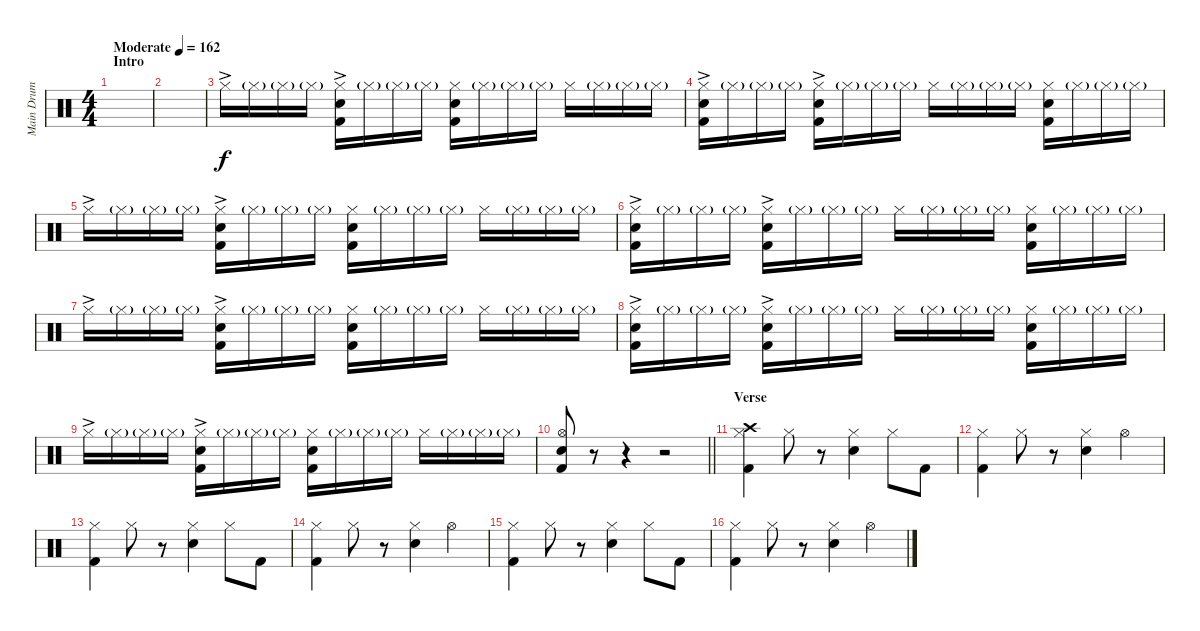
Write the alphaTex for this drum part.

\track ("Main Drum Track" "Main Drum ") {instrument percussion}
\staff {score}
\articulation defaults
\ts (4 4)
\section ("" "Intro")
\tempo (162 "Moderate")
\clef neutral
\ks c
|
|
"Hi-Hat (closed)"{ac}.16 "Hi-Hat (closed)"{g}.16 "Hi-Hat (closed)"{g}.16 "Hi-Hat (closed)"{g}.16 ("Hand Clap (hit)" "Hi-Hat (closed)"{ac} "Kick (hit) 2").16 "Hi-Hat (closed)"{g}.16 "Hi-Hat (closed)"{g}.16 "Hi-Hat (closed)"{g}.16 ("Hand Clap (hit)" "Hi-Hat (closed)" "Kick (hit) 2").16 "Hi-Hat (closed)"{g}.16 "Hi-Hat (closed)"{g}.16 "Hi-Hat (closed)"{g}.16 "Hi-Hat (closed)".16 "Hi-Hat (closed)"{g}.16 "Hi-Hat (closed)"{g}.16 "Hi-Hat (closed)"{g}.16 |
("Hand Clap (hit)" "Hi-Hat (closed)"{ac} "Kick (hit) 2").16 "Hi-Hat (closed)"{g}.16 "Hi-Hat (closed)"{g}.16 "Hi-Hat (closed)"{g}.16 ("Hand Clap (hit)" "Hi-Hat (closed)"{ac} "Kick (hit) 2").16 "Hi-Hat (closed)"{g}.16 "Hi-Hat (closed)"{g}.16 "Hi-Hat (closed)"{g}.16 "Hi-Hat (closed)".16 "Hi-Hat (closed)"{g}.16 "Hi-Hat (closed)"{g}.16 "Hi-Hat (closed)"{g}.16 ("Hand Clap (hit)" "Hi-Hat (closed)" "Kick (hit) 2").16 "Hi-Hat (closed)"{g}.16 "Hi-Hat (closed)"{g}.16 "Hi-Hat (closed)"{g}.16 |
"Hi-Hat (closed)"{ac}.16 "Hi-Hat (closed)"{g}.16 "Hi-Hat (closed)"{g}.16 "Hi-Hat (closed)"{g}.16 ("Hand Clap (hit)" "Hi-Hat (closed)"{ac} "Kick (hit) 2").16 "Hi-Hat (closed)"{g}.16 "Hi-Hat (closed)"{g}.16 "Hi-Hat (closed)"{g}.16 ("Hand Clap (hit)" "Hi-Hat (closed)" "Kick (hit) 2").16 "Hi-Hat (closed)"{g}.16 "Hi-Hat (closed)"{g}.16 "Hi-Hat (closed)"{g}.16 "Hi-Hat (closed)".16 "Hi-Hat (closed)"{g}.16 "Hi-Hat (closed)"{g}.16 "Hi-Hat (closed)"{g}.16 |
("Hand Clap (hit)" "Hi-Hat (closed)"{ac} "Kick (hit) 2").16 "Hi-Hat (closed)"{g}.16 "Hi-Hat (closed)"{g}.16 "Hi-Hat (closed)"{g}.16 ("Hand Clap (hit)" "Hi-Hat (closed)"{ac} "Kick (hit) 2").16 "Hi-Hat (closed)"{g}.16 "Hi-Hat (closed)"{g}.16 "Hi-Hat (closed)"{g}.16 "Hi-Hat (closed)".16 "Hi-Hat (closed)"{g}.16 "Hi-Hat (closed)"{g}.16 "Hi-Hat (closed)"{g}.16 ("Hand Clap (hit)" "Hi-Hat (closed)" "Kick (hit) 2").16 "Hi-Hat (closed)"{g}.16 "Hi-Hat (closed)"{g}.16 "Hi-Hat (closed)"{g}.16 |
"Hi-Hat (closed)"{ac}.16 "Hi-Hat (closed)"{g}.16 "Hi-Hat (closed)"{g}.16 "Hi-Hat (closed)"{g}.16 ("Hand Clap (hit)" "Hi-Hat (closed)"{ac} "Kick (hit) 2").16 "Hi-Hat (closed)"{g}.16 "Hi-Hat (closed)"{g}.16 "Hi-Hat (closed)"{g}.16 ("Hand Clap (hit)" "Hi-Hat (closed)" "Kick (hit) 2").16 "Hi-Hat (closed)"{g}.16 "Hi-Hat (closed)"{g}.16 "Hi-Hat (closed)"{g}.16 "Hi-Hat (closed)".16 "Hi-Hat (closed)"{g}.16 "Hi-Hat (closed)"{g}.16 "Hi-Hat (closed)"{g}.16 |
("Hand Clap (hit)" "Hi-Hat (closed)"{ac} "Kick (hit) 2").16 "Hi-Hat (closed)"{g}.16 "Hi-Hat (closed)"{g}.16 "Hi-Hat (closed)"{g}.16 ("Hand Clap (hit)" "Hi-Hat (closed)"{ac} "Kick (hit) 2").16 "Hi-Hat (closed)"{g}.16 "Hi-Hat (closed)"{g}.16 "Hi-Hat (closed)"{g}.16 "Hi-Hat (closed)".16 "Hi-Hat (closed)"{g}.16 "Hi-Hat (closed)"{g}.16 "Hi-Hat (closed)"{g}.16 ("Hand Clap (hit)" "Hi-Hat (closed)" "Kick (hit) 2").16 "Hi-Hat (closed)"{g}.16 "Hi-Hat (closed)"{g}.16 "Hi-Hat (closed)"{g}.16 |
"Hi-Hat (closed)"{ac}.16 "Hi-Hat (closed)"{g}.16 "Hi-Hat (closed)"{g}.16 "Hi-Hat (closed)"{g}.16 ("Hand Clap (hit)" "Hi-Hat (closed)"{ac} "Kick (hit) 2").16 "Hi-Hat (closed)"{g}.16 "Hi-Hat (closed)"{g}.16 "Hi-Hat (closed)"{g}.16 ("Hand Clap (hit)" "Hi-Hat (closed)" "Kick (hit) 2").16 "Hi-Hat (closed)"{g}.16 "Hi-Hat (closed)"{g}.16 "Hi-Hat (closed)"{g}.16 "Hi-Hat (closed)".16 "Hi-Hat (closed)"{g}.16 "Hi-Hat (closed)"{g}.16 "Hi-Hat (closed)"{g}.16 |
\barLineRight lightlight
("Hi-Hat (open)" "Electric Snare (hit)" "Kick (hit) 2").8 r.8 r.4 r.2 |
\section ("" "Verse")
("Crash high (hit)" "Hi-Hat (closed)" "Kick (hit) 2").4 "Hi-Hat (closed)".8 r.8 ("Hi-Hat (closed)" "Electric Snare (hit)").4 "Hi-Hat (closed)".8 "Kick (hit) 2".8 |
("Hi-Hat (closed)" "Kick (hit) 2").4 "Hi-Hat (closed)".8 r.8 ("Hi-Hat (closed)" "Electric Snare (hit)").4 "Hi-Hat (open)".4 |
("Hi-Hat (closed)" "Kick (hit) 2").4 "Hi-Hat (closed)".8 r.8 ("Hi-Hat (closed)" "Electric Snare (hit)").4 "Hi-Hat (closed)".8 "Kick (hit) 2".8 |
("Hi-Hat (closed)" "Kick (hit) 2").4 "Hi-Hat (closed)".8 r.8 ("Hi-Hat (closed)" "Electric Snare (hit)").4 "Hi-Hat (open)".4 |
("Hi-Hat (closed)" "Kick (hit) 2").4 "Hi-Hat (closed)".8 r.8 ("Hi-Hat (closed)" "Electric Snare (hit)").4 "Hi-Hat (closed)".8 "Kick (hit) 2".8 |
("Hi-Hat (closed)" "Kick (hit) 2").4 "Hi-Hat (closed)".8 r.8 ("Hi-Hat (closed)" "Electric Snare (hit)").4 "Hi-Hat (open)".4
